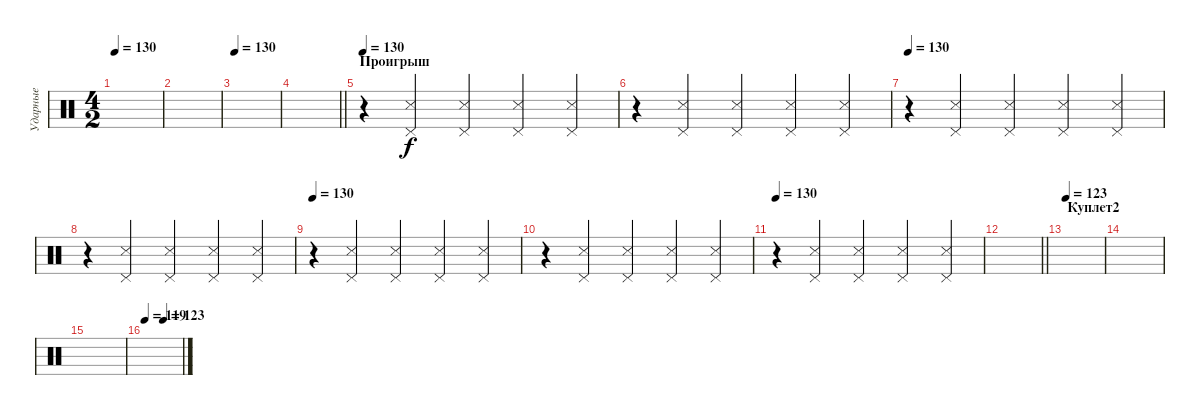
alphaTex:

\track ("Ударные" "Ударные") {instrument percussion}
\staff {score}
\articulation defaults
\ts (4 2)
\tempo 130
\clef neutral
\ks c
|
|
\tempo 130
|
\barLineRight lightlight
|
\section ("" "Проигрыш")
\tempo 130
r.4 ("Pedal Hi-Hat (hit)" "Snare (side stick) 3").2 ("Pedal Hi-Hat (hit)" "Snare (side stick) 3").2 ("Pedal Hi-Hat (hit)" "Snare (side stick) 3").2 ("Pedal Hi-Hat (hit)" "Snare (side stick) 3").4 |
r.4 ("Pedal Hi-Hat (hit)" "Snare (side stick) 3").2 ("Pedal Hi-Hat (hit)" "Snare (side stick) 3").2 ("Pedal Hi-Hat (hit)" "Snare (side stick) 3").2 ("Pedal Hi-Hat (hit)" "Snare (side stick) 3").4 |
\tempo 130
r.4 ("Pedal Hi-Hat (hit)" "Snare (side stick) 3").2 ("Pedal Hi-Hat (hit)" "Snare (side stick) 3").2 ("Pedal Hi-Hat (hit)" "Snare (side stick) 3").2 ("Pedal Hi-Hat (hit)" "Snare (side stick) 3").4 |
r.4 ("Pedal Hi-Hat (hit)" "Snare (side stick) 3").2 ("Pedal Hi-Hat (hit)" "Snare (side stick) 3").2 ("Pedal Hi-Hat (hit)" "Snare (side stick) 3").2 ("Pedal Hi-Hat (hit)" "Snare (side stick) 3").4 |
\tempo 130
r.4 ("Pedal Hi-Hat (hit)" "Snare (side stick) 3").2 ("Pedal Hi-Hat (hit)" "Snare (side stick) 3").2 ("Pedal Hi-Hat (hit)" "Snare (side stick) 3").2 ("Pedal Hi-Hat (hit)" "Snare (side stick) 3").4 |
r.4 ("Pedal Hi-Hat (hit)" "Snare (side stick) 3").2 ("Pedal Hi-Hat (hit)" "Snare (side stick) 3").2 ("Pedal Hi-Hat (hit)" "Snare (side stick) 3").2 ("Pedal Hi-Hat (hit)" "Snare (side stick) 3").4 |
\tempo 130
r.4 ("Pedal Hi-Hat (hit)" "Snare (side stick) 3").2 ("Pedal Hi-Hat (hit)" "Snare (side stick) 3").2 ("Pedal Hi-Hat (hit)" "Snare (side stick) 3").2 ("Pedal Hi-Hat (hit)" "Snare (side stick) 3").4 |
\barLineRight lightlight
|
\section ("" "Куплет2")
\tempo 123
|
|
|
\tempo 119
\tempo (123 0.5)
